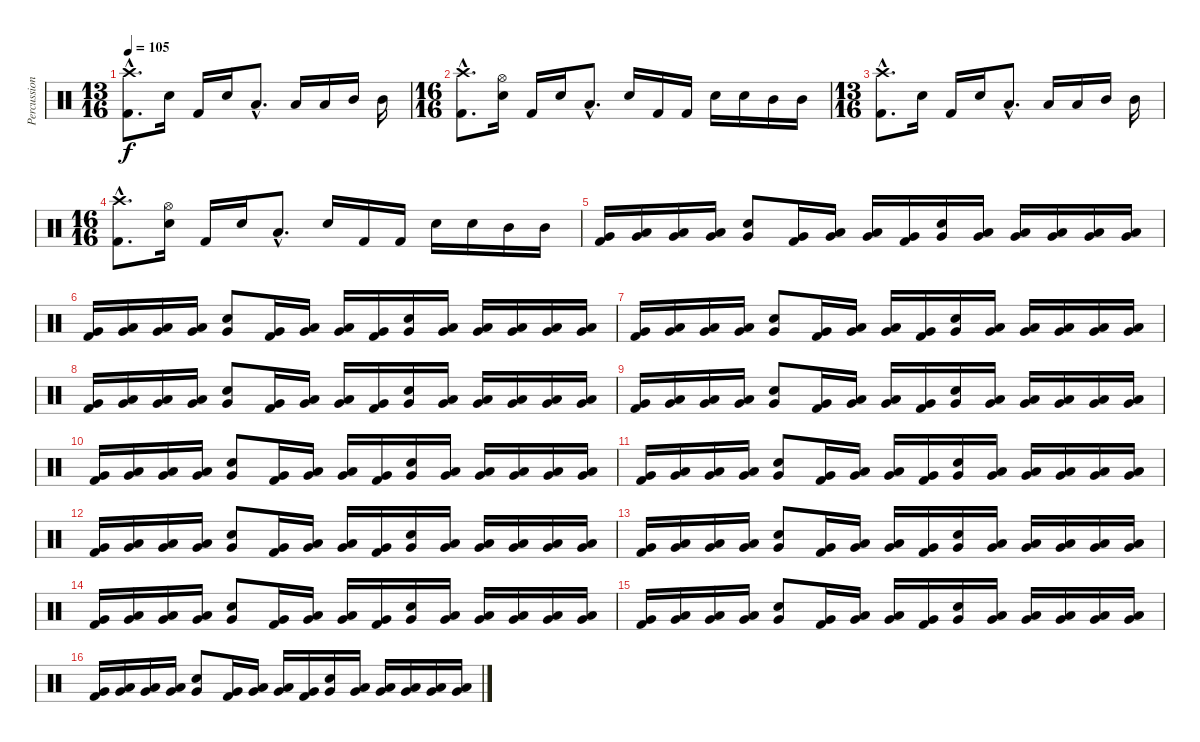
\track ("Percussion" "Percussion") {instrument percussion}
\staff {score}
\articulation defaults
\ts (13 16)
\tempo 105
\clef neutral
\ks c
("Kick (hit) 2"{hac} "Crash high (hit)"{hac}).8{d dy f} "Snare (hit) 2".16 "Kick (hit) 2".16 "Snare (hit) 2".16 "Low Floor Tom (hit)"{hac}.8{d} "Low Tom (hit)".16 "Low Tom (hit)".16 "Mid Tom (hit)".16 "Mid Tom (hit)".16 |
\ts (16 16)
("Kick (hit) 2"{hac} "Crash high (hit)"{hac}).8{d} ("Snare (hit) 2" "Hi-Hat (open)").16 "Kick (hit) 2".16 "Snare (hit) 2".16 "Low Floor Tom (hit)"{hac}.8{d} "Snare (hit) 2".16 "Kick (hit) 2".16 "Kick (hit) 2".16 "Snare (hit) 2".16 "Snare (hit) 2".16 "Mid Tom (hit)".16 "Mid Tom (hit)".16 |
\ts (13 16)
("Kick (hit) 2"{hac} "Crash high (hit)"{hac}).8{d} "Snare (hit) 2".16 "Kick (hit) 2".16 "Snare (hit) 2".16 "Low Floor Tom (hit)"{hac}.8{d} "Low Tom (hit)".16 "Low Tom (hit)".16 "Mid Tom (hit)".16 "Mid Tom (hit)".16 |
\ts (16 16)
("Kick (hit) 2"{hac} "Crash high (hit)"{hac}).8{d} ("Snare (hit) 2" "Hi-Hat (open)").16 "Kick (hit) 2".16 "Snare (hit) 2".16 "Low Floor Tom (hit)"{hac}.8{d} "Snare (hit) 2".16 "Kick (hit) 2".16 "Kick (hit) 2".16 "Snare (hit) 2".16 "Snare (hit) 2".16 "Mid Tom (hit)".16 "Mid Tom (hit)".16 |
("Kick (hit) 2" "Very Low Tom (hit)").16 ("Low Floor Tom (hit)" "Very Low Tom (hit)").16 ("Low Floor Tom (hit)" "Very Low Tom (hit)").16 ("Low Floor Tom (hit)" "Very Low Tom (hit)").16 ("Snare (hit) 2" "Very Low Tom (hit)").8 ("Kick (hit) 2" "Very Low Tom (hit)").16 ("Low Floor Tom (hit)" "Very Low Tom (hit)").16 ("Low Floor Tom (hit)" "Very Low Tom (hit)").16 ("Kick (hit) 2" "Very Low Tom (hit)").16 ("Snare (hit) 2" "Very Low Tom (hit)").16 ("Low Floor Tom (hit)" "Very Low Tom (hit)").16 ("Low Floor Tom (hit)" "Very Low Tom (hit)").16 ("Low Floor Tom (hit)" "Very Low Tom (hit)").16 ("Low Floor Tom (hit)" "Very Low Tom (hit)").16 ("Low Floor Tom (hit)" "Very Low Tom (hit)").16 |
("Kick (hit) 2" "Very Low Tom (hit)").16 ("Low Floor Tom (hit)" "Very Low Tom (hit)").16 ("Low Floor Tom (hit)" "Very Low Tom (hit)").16 ("Low Floor Tom (hit)" "Very Low Tom (hit)").16 ("Snare (hit) 2" "Very Low Tom (hit)").8 ("Kick (hit) 2" "Very Low Tom (hit)").16 ("Low Floor Tom (hit)" "Very Low Tom (hit)").16 ("Low Floor Tom (hit)" "Very Low Tom (hit)").16 ("Kick (hit) 2" "Very Low Tom (hit)").16 ("Snare (hit) 2" "Very Low Tom (hit)").16 ("Low Floor Tom (hit)" "Very Low Tom (hit)").16 ("Low Floor Tom (hit)" "Very Low Tom (hit)").16 ("Low Floor Tom (hit)" "Very Low Tom (hit)").16 ("Low Floor Tom (hit)" "Very Low Tom (hit)").16 ("Low Floor Tom (hit)" "Very Low Tom (hit)").16 |
("Kick (hit) 2" "Very Low Tom (hit)").16 ("Low Floor Tom (hit)" "Very Low Tom (hit)").16 ("Low Floor Tom (hit)" "Very Low Tom (hit)").16 ("Low Floor Tom (hit)" "Very Low Tom (hit)").16 ("Snare (hit) 2" "Very Low Tom (hit)").8 ("Kick (hit) 2" "Very Low Tom (hit)").16 ("Low Floor Tom (hit)" "Very Low Tom (hit)").16 ("Low Floor Tom (hit)" "Very Low Tom (hit)").16 ("Kick (hit) 2" "Very Low Tom (hit)").16 ("Snare (hit) 2" "Very Low Tom (hit)").16 ("Low Floor Tom (hit)" "Very Low Tom (hit)").16 ("Low Floor Tom (hit)" "Very Low Tom (hit)").16 ("Low Floor Tom (hit)" "Very Low Tom (hit)").16 ("Low Floor Tom (hit)" "Very Low Tom (hit)").16 ("Low Floor Tom (hit)" "Very Low Tom (hit)").16 |
("Kick (hit) 2" "Very Low Tom (hit)").16 ("Low Floor Tom (hit)" "Very Low Tom (hit)").16 ("Low Floor Tom (hit)" "Very Low Tom (hit)").16 ("Low Floor Tom (hit)" "Very Low Tom (hit)").16 ("Snare (hit) 2" "Very Low Tom (hit)").8 ("Kick (hit) 2" "Very Low Tom (hit)").16 ("Low Floor Tom (hit)" "Very Low Tom (hit)").16 ("Low Floor Tom (hit)" "Very Low Tom (hit)").16 ("Kick (hit) 2" "Very Low Tom (hit)").16 ("Snare (hit) 2" "Very Low Tom (hit)").16 ("Low Floor Tom (hit)" "Very Low Tom (hit)").16 ("Low Floor Tom (hit)" "Very Low Tom (hit)").16 ("Low Floor Tom (hit)" "Very Low Tom (hit)").16 ("Low Floor Tom (hit)" "Very Low Tom (hit)").16 ("Low Floor Tom (hit)" "Very Low Tom (hit)").16 |
("Kick (hit) 2" "Very Low Tom (hit)").16 ("Low Floor Tom (hit)" "Very Low Tom (hit)").16 ("Low Floor Tom (hit)" "Very Low Tom (hit)").16 ("Low Floor Tom (hit)" "Very Low Tom (hit)").16 ("Snare (hit) 2" "Very Low Tom (hit)").8 ("Kick (hit) 2" "Very Low Tom (hit)").16 ("Low Floor Tom (hit)" "Very Low Tom (hit)").16 ("Low Floor Tom (hit)" "Very Low Tom (hit)").16 ("Kick (hit) 2" "Very Low Tom (hit)").16 ("Snare (hit) 2" "Very Low Tom (hit)").16 ("Low Floor Tom (hit)" "Very Low Tom (hit)").16 ("Low Floor Tom (hit)" "Very Low Tom (hit)").16 ("Low Floor Tom (hit)" "Very Low Tom (hit)").16 ("Low Floor Tom (hit)" "Very Low Tom (hit)").16 ("Low Floor Tom (hit)" "Very Low Tom (hit)").16 |
("Kick (hit) 2" "Very Low Tom (hit)").16 ("Low Floor Tom (hit)" "Very Low Tom (hit)").16 ("Low Floor Tom (hit)" "Very Low Tom (hit)").16 ("Low Floor Tom (hit)" "Very Low Tom (hit)").16 ("Snare (hit) 2" "Very Low Tom (hit)").8 ("Kick (hit) 2" "Very Low Tom (hit)").16 ("Low Floor Tom (hit)" "Very Low Tom (hit)").16 ("Low Floor Tom (hit)" "Very Low Tom (hit)").16 ("Kick (hit) 2" "Very Low Tom (hit)").16 ("Snare (hit) 2" "Very Low Tom (hit)").16 ("Low Floor Tom (hit)" "Very Low Tom (hit)").16 ("Low Floor Tom (hit)" "Very Low Tom (hit)").16 ("Low Floor Tom (hit)" "Very Low Tom (hit)").16 ("Low Floor Tom (hit)" "Very Low Tom (hit)").16 ("Low Floor Tom (hit)" "Very Low Tom (hit)").16 |
("Kick (hit) 2" "Very Low Tom (hit)").16 ("Low Floor Tom (hit)" "Very Low Tom (hit)").16 ("Low Floor Tom (hit)" "Very Low Tom (hit)").16 ("Low Floor Tom (hit)" "Very Low Tom (hit)").16 ("Snare (hit) 2" "Very Low Tom (hit)").8 ("Kick (hit) 2" "Very Low Tom (hit)").16 ("Low Floor Tom (hit)" "Very Low Tom (hit)").16 ("Low Floor Tom (hit)" "Very Low Tom (hit)").16 ("Kick (hit) 2" "Very Low Tom (hit)").16 ("Snare (hit) 2" "Very Low Tom (hit)").16 ("Low Floor Tom (hit)" "Very Low Tom (hit)").16 ("Low Floor Tom (hit)" "Very Low Tom (hit)").16 ("Low Floor Tom (hit)" "Very Low Tom (hit)").16 ("Low Floor Tom (hit)" "Very Low Tom (hit)").16 ("Low Floor Tom (hit)" "Very Low Tom (hit)").16 |
("Kick (hit) 2" "Very Low Tom (hit)").16 ("Low Floor Tom (hit)" "Very Low Tom (hit)").16 ("Low Floor Tom (hit)" "Very Low Tom (hit)").16 ("Low Floor Tom (hit)" "Very Low Tom (hit)").16 ("Snare (hit) 2" "Very Low Tom (hit)").8 ("Kick (hit) 2" "Very Low Tom (hit)").16 ("Low Floor Tom (hit)" "Very Low Tom (hit)").16 ("Low Floor Tom (hit)" "Very Low Tom (hit)").16 ("Kick (hit) 2" "Very Low Tom (hit)").16 ("Snare (hit) 2" "Very Low Tom (hit)").16 ("Low Floor Tom (hit)" "Very Low Tom (hit)").16 ("Low Floor Tom (hit)" "Very Low Tom (hit)").16 ("Low Floor Tom (hit)" "Very Low Tom (hit)").16 ("Low Floor Tom (hit)" "Very Low Tom (hit)").16 ("Low Floor Tom (hit)" "Very Low Tom (hit)").16 |
("Kick (hit) 2" "Very Low Tom (hit)").16 ("Low Floor Tom (hit)" "Very Low Tom (hit)").16 ("Low Floor Tom (hit)" "Very Low Tom (hit)").16 ("Low Floor Tom (hit)" "Very Low Tom (hit)").16 ("Snare (hit) 2" "Very Low Tom (hit)").8 ("Kick (hit) 2" "Very Low Tom (hit)").16 ("Low Floor Tom (hit)" "Very Low Tom (hit)").16 ("Low Floor Tom (hit)" "Very Low Tom (hit)").16 ("Kick (hit) 2" "Very Low Tom (hit)").16 ("Snare (hit) 2" "Very Low Tom (hit)").16 ("Low Floor Tom (hit)" "Very Low Tom (hit)").16 ("Low Floor Tom (hit)" "Very Low Tom (hit)").16 ("Low Floor Tom (hit)" "Very Low Tom (hit)").16 ("Low Floor Tom (hit)" "Very Low Tom (hit)").16 ("Low Floor Tom (hit)" "Very Low Tom (hit)").16 |
("Kick (hit) 2" "Very Low Tom (hit)").16 ("Low Floor Tom (hit)" "Very Low Tom (hit)").16 ("Low Floor Tom (hit)" "Very Low Tom (hit)").16 ("Low Floor Tom (hit)" "Very Low Tom (hit)").16 ("Snare (hit) 2" "Very Low Tom (hit)").8 ("Kick (hit) 2" "Very Low Tom (hit)").16 ("Low Floor Tom (hit)" "Very Low Tom (hit)").16 ("Low Floor Tom (hit)" "Very Low Tom (hit)").16 ("Kick (hit) 2" "Very Low Tom (hit)").16 ("Snare (hit) 2" "Very Low Tom (hit)").16 ("Low Floor Tom (hit)" "Very Low Tom (hit)").16 ("Low Floor Tom (hit)" "Very Low Tom (hit)").16 ("Low Floor Tom (hit)" "Very Low Tom (hit)").16 ("Low Floor Tom (hit)" "Very Low Tom (hit)").16 ("Low Floor Tom (hit)" "Very Low Tom (hit)").16 |
("Kick (hit) 2" "Very Low Tom (hit)").16 ("Low Floor Tom (hit)" "Very Low Tom (hit)").16 ("Low Floor Tom (hit)" "Very Low Tom (hit)").16 ("Low Floor Tom (hit)" "Very Low Tom (hit)").16 ("Snare (hit) 2" "Very Low Tom (hit)").8 ("Kick (hit) 2" "Very Low Tom (hit)").16 ("Low Floor Tom (hit)" "Very Low Tom (hit)").16 ("Low Floor Tom (hit)" "Very Low Tom (hit)").16 ("Kick (hit) 2" "Very Low Tom (hit)").16 ("Snare (hit) 2" "Very Low Tom (hit)").16 ("Low Floor Tom (hit)" "Very Low Tom (hit)").16 ("Low Floor Tom (hit)" "Very Low Tom (hit)").16 ("Low Floor Tom (hit)" "Very Low Tom (hit)").16 ("Low Floor Tom (hit)" "Very Low Tom (hit)").16 ("Low Floor Tom (hit)" "Very Low Tom (hit)").16 |
("Kick (hit) 2" "Very Low Tom (hit)").16 ("Low Floor Tom (hit)" "Very Low Tom (hit)").16 ("Low Floor Tom (hit)" "Very Low Tom (hit)").16 ("Low Floor Tom (hit)" "Very Low Tom (hit)").16 ("Snare (hit) 2" "Very Low Tom (hit)").8 ("Kick (hit) 2" "Very Low Tom (hit)").16 ("Low Floor Tom (hit)" "Very Low Tom (hit)").16 ("Low Floor Tom (hit)" "Very Low Tom (hit)").16 ("Kick (hit) 2" "Very Low Tom (hit)").16 ("Snare (hit) 2" "Very Low Tom (hit)").16 ("Low Floor Tom (hit)" "Very Low Tom (hit)").16 ("Low Floor Tom (hit)" "Very Low Tom (hit)").16 ("Low Floor Tom (hit)" "Very Low Tom (hit)").16 ("Low Floor Tom (hit)" "Very Low Tom (hit)").16 ("Low Floor Tom (hit)" "Very Low Tom (hit)").16
